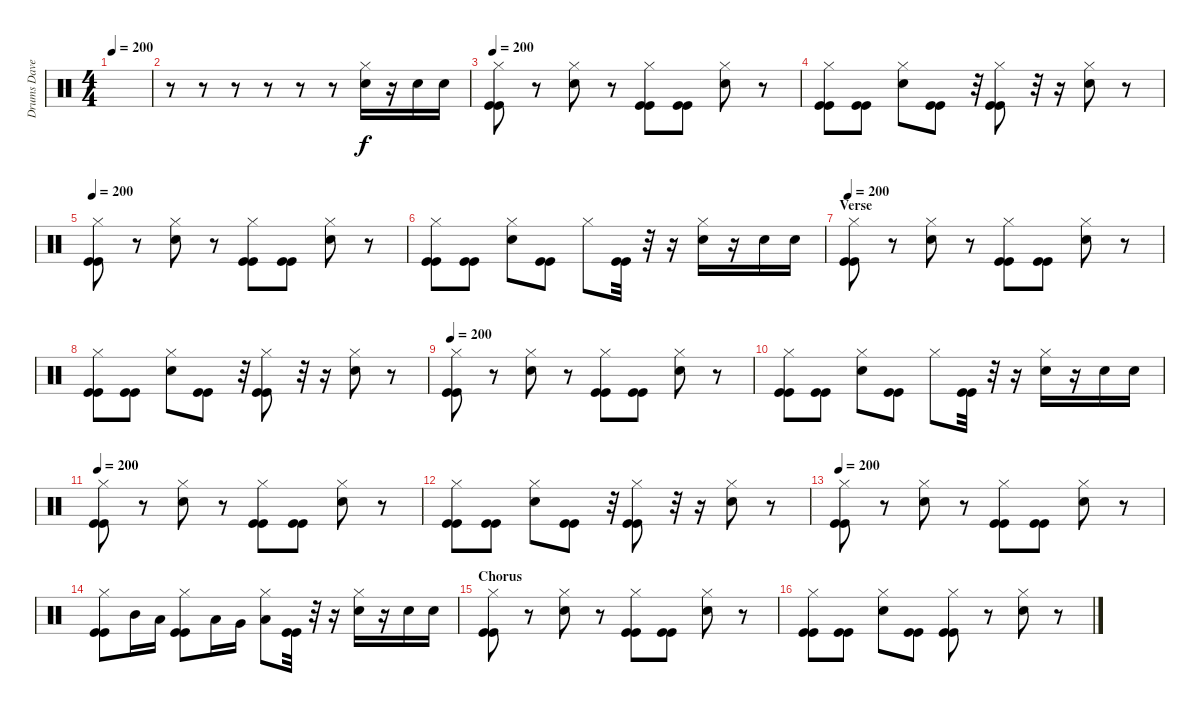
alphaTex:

\track ("Drums Dave Grohl" "Drums Dave") {instrument percussion}
\staff {score}
\articulation defaults
\ts (4 4)
\tempo 200
\clef neutral
\ks c
|
r.8 r.8 r.8 r.8 r.8 r.8 ("Hi-Hat (closed)" "Electric Snare (hit)").16{dy f} r.16 "Electric Snare (hit)".16 "Electric Snare (hit)".16 |
\tempo 200
("Hi-Hat (closed)" "Kick (hit)" "Kick (hit)").8 r.8 ("Hi-Hat (closed)" "Electric Snare (hit)").8 r.8 ("Hi-Hat (closed)" "Kick (hit)" "Kick (hit)").8 ("Kick (hit)" "Kick (hit)").8 ("Hi-Hat (closed)" "Electric Snare (hit)").8 r.8 |
("Hi-Hat (closed)" "Kick (hit)" "Kick (hit)").8 ("Kick (hit)" "Kick (hit)").8 ("Hi-Hat (closed)" "Electric Snare (hit)").8 ("Kick (hit)" "Kick (hit)").8 r.32 ("Hi-Hat (closed)" "Kick (hit)" "Kick (hit)").8 r.32 r.16 ("Hi-Hat (closed)" "Electric Snare (hit)").8 r.8 |
\tempo 200
("Hi-Hat (closed)" "Kick (hit)" "Kick (hit)").8 r.8 ("Hi-Hat (closed)" "Electric Snare (hit)").8 r.8 ("Hi-Hat (closed)" "Kick (hit)" "Kick (hit)").8 ("Kick (hit)" "Kick (hit)").8 ("Hi-Hat (closed)" "Electric Snare (hit)").8 r.8 |
("Hi-Hat (closed)" "Kick (hit)" "Kick (hit)").8 ("Kick (hit)" "Kick (hit)").8 ("Hi-Hat (closed)" "Electric Snare (hit)").8 ("Kick (hit)" "Kick (hit)").8 "Hi-Hat (closed)".8 ("Kick (hit)" "Kick (hit)").32 r.32 r.16 ("Hi-Hat (closed)" "Electric Snare (hit)").16 r.16 "Electric Snare (hit)".16 "Electric Snare (hit)".16 |
\section ("" "Verse")
\tempo 200
("Hi-Hat (closed)" "Kick (hit)" "Kick (hit)").8 r.8 ("Hi-Hat (closed)" "Electric Snare (hit)").8 r.8 ("Hi-Hat (closed)" "Kick (hit)" "Kick (hit)").8 ("Kick (hit)" "Kick (hit)").8 ("Hi-Hat (closed)" "Electric Snare (hit)").8 r.8 |
("Hi-Hat (closed)" "Kick (hit)" "Kick (hit)").8 ("Kick (hit)" "Kick (hit)").8 ("Hi-Hat (closed)" "Electric Snare (hit)").8 ("Kick (hit)" "Kick (hit)").8 r.32 ("Hi-Hat (closed)" "Kick (hit)" "Kick (hit)").8 r.32 r.16 ("Hi-Hat (closed)" "Electric Snare (hit)").8 r.8 |
\tempo 200
("Hi-Hat (closed)" "Kick (hit)" "Kick (hit)").8 r.8 ("Hi-Hat (closed)" "Electric Snare (hit)").8 r.8 ("Hi-Hat (closed)" "Kick (hit)" "Kick (hit)").8 ("Kick (hit)" "Kick (hit)").8 ("Hi-Hat (closed)" "Electric Snare (hit)").8 r.8 |
("Hi-Hat (closed)" "Kick (hit)" "Kick (hit)").8 ("Kick (hit)" "Kick (hit)").8 ("Hi-Hat (closed)" "Electric Snare (hit)").8 ("Kick (hit)" "Kick (hit)").8 "Hi-Hat (closed)".8 ("Kick (hit)" "Kick (hit)").32 r.32 r.16 ("Hi-Hat (closed)" "Electric Snare (hit)").16 r.16 "Electric Snare (hit)".16 "Electric Snare (hit)".16 |
\tempo 200
("Hi-Hat (closed)" "Kick (hit)" "Kick (hit)").8 r.8 ("Hi-Hat (closed)" "Electric Snare (hit)").8 r.8 ("Hi-Hat (closed)" "Kick (hit)" "Kick (hit)").8 ("Kick (hit)" "Kick (hit)").8 ("Hi-Hat (closed)" "Electric Snare (hit)").8 r.8 |
("Hi-Hat (closed)" "Kick (hit)" "Kick (hit)").8 ("Kick (hit)" "Kick (hit)").8 ("Hi-Hat (closed)" "Electric Snare (hit)").8 ("Kick (hit)" "Kick (hit)").8 r.32 ("Hi-Hat (closed)" "Kick (hit)" "Kick (hit)").8 r.32 r.16 ("Hi-Hat (closed)" "Electric Snare (hit)").8 r.8 |
\tempo 200
("Hi-Hat (closed)" "Kick (hit)" "Kick (hit)").8 r.8 ("Hi-Hat (closed)" "Electric Snare (hit)").8 r.8 ("Hi-Hat (closed)" "Kick (hit)" "Kick (hit)").8 ("Kick (hit)" "Kick (hit)").8 ("Hi-Hat (closed)" "Electric Snare (hit)").8 r.8 |
("Hi-Hat (closed)" "Kick (hit)" "Kick (hit)").8 "Mid Tom (hit)".16 "Low Tom (hit)".16 ("Hi-Hat (closed)" "Kick (hit)" "Kick (hit)").8 "Low Tom (hit)".16 "Very Low Tom (hit)".16 ("Hi-Hat (closed)" "Low Tom (hit)").8 ("Kick (hit)" "Kick (hit)").32 r.32 r.16 ("Hi-Hat (closed)" "Electric Snare (hit)").16 r.16 "Electric Snare (hit)".16 "Electric Snare (hit)".16 |
\section ("" "Chorus")
("Hi-Hat (closed)" "Kick (hit)" "Kick (hit)").8 r.8 ("Hi-Hat (closed)" "Electric Snare (hit)").8 r.8 ("Hi-Hat (closed)" "Kick (hit)" "Kick (hit)").8 ("Kick (hit)" "Kick (hit)").8 ("Hi-Hat (closed)" "Electric Snare (hit)").8 r.8 |
("Hi-Hat (closed)" "Kick (hit)" "Kick (hit)").8 ("Kick (hit)" "Kick (hit)").8 ("Hi-Hat (closed)" "Electric Snare (hit)").8 ("Kick (hit)" "Kick (hit)").8 ("Hi-Hat (closed)" "Kick (hit)" "Kick (hit)").8 r.8 ("Hi-Hat (closed)" "Electric Snare (hit)").8 r.8
